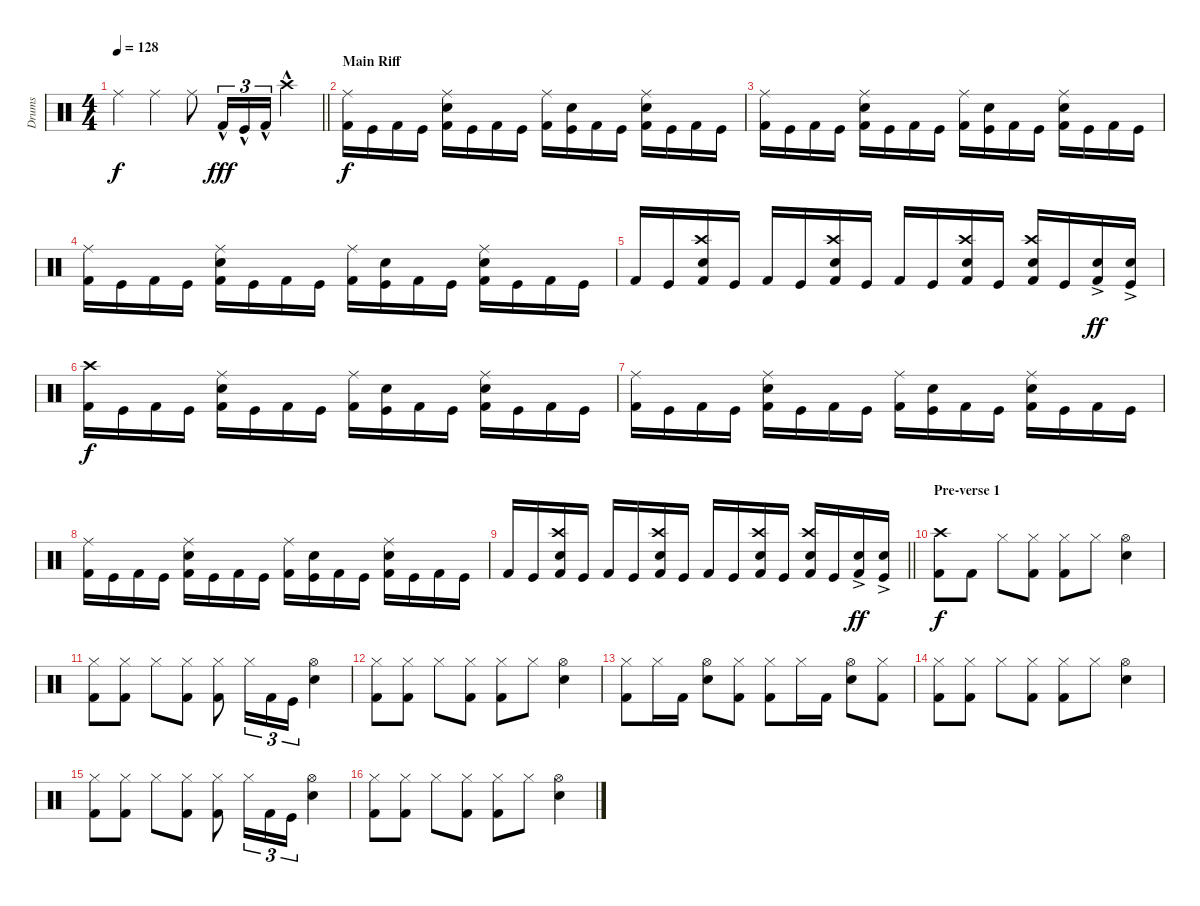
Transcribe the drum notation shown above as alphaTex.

\track ("Drums" "Drums") {instrument percussion}
\staff {score}
\articulation defaults
\ts (4 4)
\tempo 128
\clef neutral
\barLineRight lightlight
\ks c "Ride (middle)".4{dy f} "Ride (middle)".4 "Ride (middle)".8 "Kick (hit) 2"{hac}.16{tu (3 2) dy fff} "Kick (hit)"{hac}.16{tu (3 2)} "Kick (hit) 2"{hac}.16{tu (3 2)} "Crash high (hit)"{hac}.4
|
\section ("" "Main Riff")
("Ride (middle)" "Kick (hit) 2").16{dy f} "Kick (hit)".16 "Kick (hit) 2".16 "Kick (hit)".16 ("Ride (middle)" "Electric Snare (hit)" "Kick (hit) 2").16 "Kick (hit)".16 "Kick (hit) 2".16 "Kick (hit)".16 ("Ride (middle)" "Kick (hit) 2").16 ("Electric Snare (hit)" "Kick (hit)").16 "Kick (hit) 2".16 "Kick (hit)".16 ("Ride (middle)" "Electric Snare (hit)" "Kick (hit) 2").16 "Kick (hit)".16 "Kick (hit) 2".16 "Kick (hit)".16 |
("Ride (middle)" "Kick (hit) 2").16 "Kick (hit)".16 "Kick (hit) 2".16 "Kick (hit)".16 ("Ride (middle)" "Electric Snare (hit)" "Kick (hit) 2").16 "Kick (hit)".16 "Kick (hit) 2".16 "Kick (hit)".16 ("Ride (middle)" "Kick (hit) 2").16 ("Electric Snare (hit)" "Kick (hit)").16 "Kick (hit) 2".16 "Kick (hit)".16 ("Ride (middle)" "Electric Snare (hit)" "Kick (hit) 2").16 "Kick (hit)".16 "Kick (hit) 2".16 "Kick (hit)".16 |
("Ride (middle)" "Kick (hit) 2").16 "Kick (hit)".16 "Kick (hit) 2".16 "Kick (hit)".16 ("Ride (middle)" "Electric Snare (hit)" "Kick (hit) 2").16 "Kick (hit)".16 "Kick (hit) 2".16 "Kick (hit)".16 ("Ride (middle)" "Kick (hit) 2").16 ("Electric Snare (hit)" "Kick (hit)").16 "Kick (hit) 2".16 "Kick (hit)".16 ("Ride (middle)" "Electric Snare (hit)" "Kick (hit) 2").16 "Kick (hit)".16 "Kick (hit) 2".16 "Kick (hit)".16 |
"Kick (hit) 2".16 "Kick (hit)".16 ("Crash high (hit)" "Electric Snare (hit)" "Kick (hit) 2").16 "Kick (hit)".16 "Kick (hit) 2".16 "Kick (hit)".16 ("Crash high (hit)" "Electric Snare (hit)" "Kick (hit) 2").16 "Kick (hit)".16 "Kick (hit) 2".16 "Kick (hit)".16 ("Crash high (hit)" "Electric Snare (hit)" "Kick (hit) 2").16 "Kick (hit)".16 ("Crash high (hit)" "Electric Snare (hit)" "Kick (hit) 2").16 "Kick (hit)".16 ("Electric Snare (hit)"{ac} "Kick (hit) 2").16{dy ff} ("Electric Snare (hit)"{ac} "Kick (hit)").16 |
("Crash high (hit)" "Kick (hit) 2").16{dy f} "Kick (hit)".16 "Kick (hit) 2".16 "Kick (hit)".16 ("Ride (middle)" "Electric Snare (hit)" "Kick (hit) 2").16 "Kick (hit)".16 "Kick (hit) 2".16 "Kick (hit)".16 ("Ride (middle)" "Kick (hit) 2").16 ("Electric Snare (hit)" "Kick (hit)").16 "Kick (hit) 2".16 "Kick (hit)".16 ("Ride (middle)" "Electric Snare (hit)" "Kick (hit) 2").16 "Kick (hit)".16 "Kick (hit) 2".16 "Kick (hit)".16 |
("Ride (middle)" "Kick (hit) 2").16 "Kick (hit)".16 "Kick (hit) 2".16 "Kick (hit)".16 ("Ride (middle)" "Electric Snare (hit)" "Kick (hit) 2").16 "Kick (hit)".16 "Kick (hit) 2".16 "Kick (hit)".16 ("Ride (middle)" "Kick (hit) 2").16 ("Electric Snare (hit)" "Kick (hit)").16 "Kick (hit) 2".16 "Kick (hit)".16 ("Ride (middle)" "Electric Snare (hit)" "Kick (hit) 2").16 "Kick (hit)".16 "Kick (hit) 2".16 "Kick (hit)".16 |
("Ride (middle)" "Kick (hit) 2").16 "Kick (hit)".16 "Kick (hit) 2".16 "Kick (hit)".16 ("Ride (middle)" "Electric Snare (hit)" "Kick (hit) 2").16 "Kick (hit)".16 "Kick (hit) 2".16 "Kick (hit)".16 ("Ride (middle)" "Kick (hit) 2").16 ("Electric Snare (hit)" "Kick (hit)").16 "Kick (hit) 2".16 "Kick (hit)".16 ("Ride (middle)" "Electric Snare (hit)" "Kick (hit) 2").16 "Kick (hit)".16 "Kick (hit) 2".16 "Kick (hit)".16 |
\barLineRight lightlight "Kick (hit) 2".16 "Kick (hit)".16
("Crash high (hit)" "Electric Snare (hit)" "Kick (hit) 2").16 "Kick (hit)".16 "Kick (hit) 2".16 "Kick (hit)".16 ("Crash high (hit)" "Electric Snare (hit)" "Kick (hit) 2").16 "Kick (hit)".16 "Kick (hit) 2".16 "Kick (hit)".16 ("Crash high (hit)" "Electric Snare (hit)" "Kick (hit) 2").16 "Kick (hit)".16 ("Crash high (hit)" "Electric Snare (hit)" "Kick (hit) 2").16 "Kick (hit)".16 ("Electric Snare (hit)"{ac} "Kick (hit) 2").16{dy ff} ("Electric Snare (hit)"{ac} "Kick (hit)").16 |
\section ("" "Pre-verse 1")
("Crash high (hit)" "Kick (hit) 2").8{dy f} "Kick (hit) 2".8 "Hi-Hat (closed)".8 ("Hi-Hat (closed)" "Kick (hit) 2").8 ("Hi-Hat (closed)" "Kick (hit) 2").8 "Hi-Hat (closed)".8 ("Hi-Hat (open)" "Electric Snare (hit)").4 |
("Hi-Hat (closed)" "Kick (hit) 2").8 ("Hi-Hat (closed)" "Kick (hit) 2").8 "Hi-Hat (closed)".8 ("Hi-Hat (closed)" "Kick (hit) 2").8 ("Hi-Hat (closed)" "Kick (hit) 2").8 "Hi-Hat (closed)".16{tu (3 2)} "Kick (hit) 2".16{tu (3 2)} "Kick (hit)".16{tu (3 2)} ("Hi-Hat (open)" "Electric Snare (hit)").4 |
("Hi-Hat (closed)" "Kick (hit) 2").8 ("Hi-Hat (closed)" "Kick (hit) 2").8 "Hi-Hat (closed)".8 ("Hi-Hat (closed)" "Kick (hit) 2").8 ("Hi-Hat (closed)" "Kick (hit) 2").8 "Hi-Hat (closed)".8 ("Hi-Hat (open)" "Electric Snare (hit)").4 |
("Hi-Hat (closed)" "Kick (hit) 2").8 "Hi-Hat (closed)".16 "Kick (hit) 2".16 ("Hi-Hat (open)" "Electric Snare (hit)").8 ("Hi-Hat (closed)" "Kick (hit) 2").8 ("Hi-Hat (closed)" "Kick (hit) 2").8 "Hi-Hat (closed)".16 "Kick (hit) 2".16 ("Hi-Hat (open)" "Electric Snare (hit)").8 ("Hi-Hat (closed)" "Kick (hit) 2").8 |
("Hi-Hat (closed)" "Kick (hit) 2").8 ("Hi-Hat (closed)" "Kick (hit) 2").8 "Hi-Hat (closed)".8 ("Hi-Hat (closed)" "Kick (hit) 2").8 ("Hi-Hat (closed)" "Kick (hit) 2").8 "Hi-Hat (closed)".8 ("Hi-Hat (open)" "Electric Snare (hit)").4 |
("Hi-Hat (closed)" "Kick (hit) 2").8 ("Hi-Hat (closed)" "Kick (hit) 2").8 "Hi-Hat (closed)".8 ("Hi-Hat (closed)" "Kick (hit) 2").8 ("Hi-Hat (closed)" "Kick (hit) 2").8 "Hi-Hat (closed)".16{tu (3 2)} "Kick (hit) 2".16{tu (3 2)} "Kick (hit)".16{tu (3 2)} ("Hi-Hat (open)" "Electric Snare (hit)").4 |
("Hi-Hat (closed)" "Kick (hit) 2").8 ("Hi-Hat (closed)" "Kick (hit) 2").8 "Hi-Hat (closed)".8 ("Hi-Hat (closed)" "Kick (hit) 2").8 ("Hi-Hat (closed)" "Kick (hit) 2").8 "Hi-Hat (closed)".8 ("Hi-Hat (open)" "Electric Snare (hit)").4
